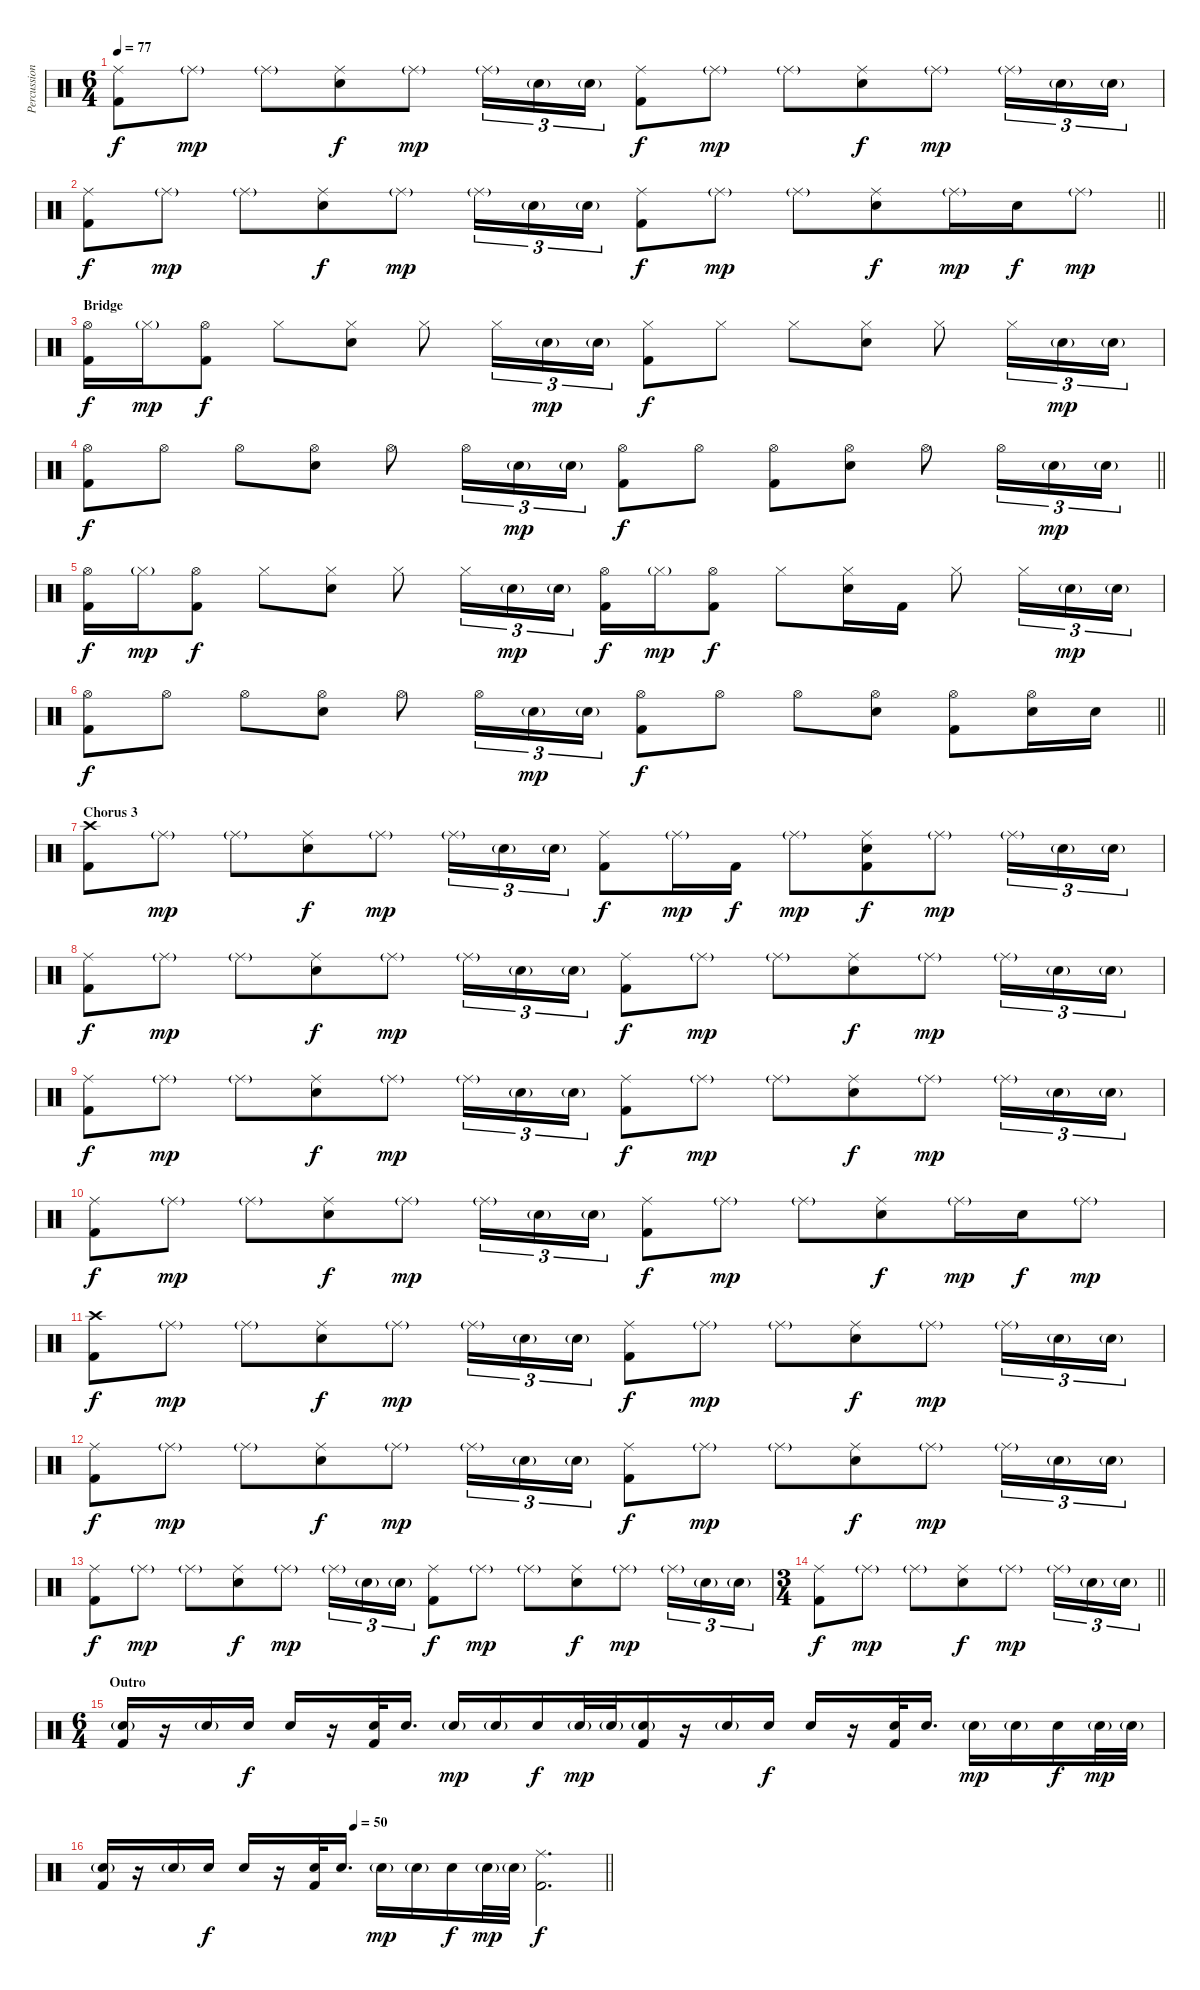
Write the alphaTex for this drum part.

\track ("Percussion" "Percussion") {instrument percussion}
\staff {score}
\articulation defaults
\ts (6 4)
\tempo 77
\clef neutral
\ks c
("Ride (middle)" "Kick (hit) 2").8{dy f beam merge} "Ride (middle)"{g}.8{dy mp} "Ride (middle)"{g}.8{beam merge} ("Ride (middle)" "Electric Snare (hit)").8{dy f beam merge} "Ride (middle)"{g}.8{dy mp} "Ride (middle)"{g}.16{tu (3 2)} "Electric Snare (hit)"{g}.16{tu (3 2)} "Electric Snare (hit)"{g}.16{tu (3 2)} ("Ride (middle)" "Kick (hit) 2").8{dy f beam merge} "Ride (middle)"{g}.8{dy mp} "Ride (middle)"{g}.8{beam merge} ("Ride (middle)" "Electric Snare (hit)").8{dy f beam merge} "Ride (middle)"{g}.8{dy mp} "Ride (middle)"{g}.16{tu (3 2)} "Electric Snare (hit)"{g}.16{tu (3 2)} "Electric Snare (hit)"{g}.16{tu (3 2)} |
\barLineRight lightlight
("Ride (middle)" "Kick (hit) 2").8{dy f beam merge} "Ride (middle)"{g}.8{dy mp} "Ride (middle)"{g}.8{beam merge} ("Ride (middle)" "Electric Snare (hit)").8{dy f beam merge} "Ride (middle)"{g}.8{dy mp} "Ride (middle)"{g}.16{tu (3 2)} "Electric Snare (hit)"{g}.16{tu (3 2)} "Electric Snare (hit)"{g}.16{tu (3 2)} ("Ride (middle)" "Kick (hit) 2").8{dy f beam merge} "Ride (middle)"{g}.8{dy mp} "Ride (middle)"{g}.8{beam merge} ("Ride (middle)" "Electric Snare (hit)").8{dy f beam merge} "Ride (middle)"{g}.16{dy mp beam merge} "Electric Snare (hit)".16{dy f} "Ride (middle)"{g}.8{dy mp} |
\section ("" "Bridge")
("Hi-Hat (open)" "Kick (hit) 2").16{dy f beam merge} "Hi-Hat (closed)"{g}.16{dy mp beam merge} ("Hi-Hat (open)" "Kick (hit) 2").8{dy f} "Hi-Hat (closed)".8 ("Hi-Hat (closed)" "Electric Snare (hit)").8 "Hi-Hat (closed)".8 "Hi-Hat (closed)".16{tu (3 2)} "Electric Snare (hit)"{g}.16{tu (3 2) dy mp} "Electric Snare (hit)"{g}.16{tu (3 2)} ("Hi-Hat (closed)" "Kick (hit) 2").8{dy f} "Hi-Hat (closed)".8 "Hi-Hat (closed)".8 ("Hi-Hat (closed)" "Electric Snare (hit)").8 "Hi-Hat (closed)".8 "Hi-Hat (closed)".16{tu (3 2)} "Electric Snare (hit)"{g}.16{tu (3 2) dy mp} "Electric Snare (hit)"{g}.16{tu (3 2)} |
\barLineRight lightlight
("Hi-Hat (open)" "Kick (hit) 2").8{dy f beam merge} "Hi-Hat (open)".8 "Hi-Hat (open)".8 ("Hi-Hat (open)" "Electric Snare (hit)").8 "Hi-Hat (open)".8 "Hi-Hat (open)".16{tu (3 2)} "Electric Snare (hit)"{g}.16{tu (3 2) dy mp} "Electric Snare (hit)"{g}.16{tu (3 2)} ("Hi-Hat (open)" "Kick (hit) 2").8{dy f} "Hi-Hat (open)".8 ("Hi-Hat (open)" "Kick (hit) 2").8 ("Hi-Hat (open)" "Electric Snare (hit)").8 "Hi-Hat (open)".8 "Hi-Hat (open)".16{tu (3 2)} "Electric Snare (hit)"{g}.16{tu (3 2) dy mp} "Electric Snare (hit)"{g}.16{tu (3 2)} |
("Hi-Hat (open)" "Kick (hit) 2").16{dy f beam merge} "Hi-Hat (closed)"{g}.16{dy mp beam merge} ("Hi-Hat (open)" "Kick (hit) 2").8{dy f} "Hi-Hat (closed)".8 ("Hi-Hat (closed)" "Electric Snare (hit)").8 "Hi-Hat (closed)".8 "Hi-Hat (closed)".16{tu (3 2)} "Electric Snare (hit)"{g}.16{tu (3 2) dy mp} "Electric Snare (hit)"{g}.16{tu (3 2)} ("Hi-Hat (open)" "Kick (hit) 2").16{dy f} "Hi-Hat (closed)"{g}.16{dy mp beam merge} ("Hi-Hat (open)" "Kick (hit) 2").8{dy f} "Hi-Hat (closed)".8 ("Hi-Hat (closed)" "Electric Snare (hit)").16{beam merge} "Kick (hit) 2".16 "Hi-Hat (closed)".8 "Hi-Hat (closed)".16{tu (3 2)} "Electric Snare (hit)"{g}.16{tu (3 2) dy mp} "Electric Snare (hit)"{g}.16{tu (3 2)} |
\barLineRight lightlight
("Hi-Hat (open)" "Kick (hit) 2").8{dy f beam merge} "Hi-Hat (open)".8 "Hi-Hat (open)".8 ("Hi-Hat (open)" "Electric Snare (hit)").8 "Hi-Hat (open)".8 "Hi-Hat (open)".16{tu (3 2)} "Electric Snare (hit)"{g}.16{tu (3 2) dy mp} "Electric Snare (hit)"{g}.16{tu (3 2)} ("Hi-Hat (open)" "Kick (hit) 2").8{dy f} "Hi-Hat (open)".8 "Hi-Hat (open)".8 ("Hi-Hat (open)" "Electric Snare (hit)").8 ("Hi-Hat (open)" "Kick (hit) 2").8 ("Hi-Hat (open)" "Electric Snare (hit)").16{beam merge} "Electric Snare (hit)".16 |
\section ("" "Chorus 3")
("Crash high (hit)" "Kick (hit) 2").8{beam merge} "Ride (middle)"{g}.8{dy mp} "Ride (middle)"{g}.8{beam merge} ("Ride (middle)" "Electric Snare (hit)").8{dy f beam merge} "Ride (middle)"{g}.8{dy mp} "Ride (middle)"{g}.16{tu (3 2)} "Electric Snare (hit)"{g}.16{tu (3 2)} "Electric Snare (hit)"{g}.16{tu (3 2)} ("Ride (middle)" "Kick (hit) 2").8{dy f beam merge} "Ride (middle)"{g}.16{dy mp beam merge} "Kick (hit) 2".16{dy f} "Ride (middle)"{g}.8{dy mp beam merge} ("Ride (middle)" "Electric Snare (hit)" "Kick (hit) 2").8{dy f beam merge} "Ride (middle)"{g}.8{dy mp} "Ride (middle)"{g}.16{tu (3 2)} "Electric Snare (hit)"{g}.16{tu (3 2)} "Electric Snare (hit)"{g}.16{tu (3 2)} |
("Ride (middle)" "Kick (hit) 2").8{dy f beam merge} "Ride (middle)"{g}.8{dy mp} "Ride (middle)"{g}.8{beam merge} ("Ride (middle)" "Electric Snare (hit)").8{dy f beam merge} "Ride (middle)"{g}.8{dy mp} "Ride (middle)"{g}.16{tu (3 2)} "Electric Snare (hit)"{g}.16{tu (3 2)} "Electric Snare (hit)"{g}.16{tu (3 2)} ("Ride (middle)" "Kick (hit) 2").8{dy f beam merge} "Ride (middle)"{g}.8{dy mp} "Ride (middle)"{g}.8{beam merge} ("Ride (middle)" "Electric Snare (hit)").8{dy f beam merge} "Ride (middle)"{g}.8{dy mp} "Ride (middle)"{g}.16{tu (3 2)} "Electric Snare (hit)"{g}.16{tu (3 2)} "Electric Snare (hit)"{g}.16{tu (3 2)} |
("Ride (middle)" "Kick (hit) 2").8{dy f beam merge} "Ride (middle)"{g}.8{dy mp} "Ride (middle)"{g}.8{beam merge} ("Ride (middle)" "Electric Snare (hit)").8{dy f beam merge} "Ride (middle)"{g}.8{dy mp} "Ride (middle)"{g}.16{tu (3 2)} "Electric Snare (hit)"{g}.16{tu (3 2)} "Electric Snare (hit)"{g}.16{tu (3 2)} ("Ride (middle)" "Kick (hit) 2").8{dy f beam merge} "Ride (middle)"{g}.8{dy mp} "Ride (middle)"{g}.8{beam merge} ("Ride (middle)" "Electric Snare (hit)").8{dy f beam merge} "Ride (middle)"{g}.8{dy mp} "Ride (middle)"{g}.16{tu (3 2)} "Electric Snare (hit)"{g}.16{tu (3 2)} "Electric Snare (hit)"{g}.16{tu (3 2)} |
("Ride (middle)" "Kick (hit) 2").8{dy f beam merge} "Ride (middle)"{g}.8{dy mp} "Ride (middle)"{g}.8{beam merge} ("Ride (middle)" "Electric Snare (hit)").8{dy f beam merge} "Ride (middle)"{g}.8{dy mp} "Ride (middle)"{g}.16{tu (3 2)} "Electric Snare (hit)"{g}.16{tu (3 2)} "Electric Snare (hit)"{g}.16{tu (3 2)} ("Ride (middle)" "Kick (hit) 2").8{dy f beam merge} "Ride (middle)"{g}.8{dy mp} "Ride (middle)"{g}.8{beam merge} ("Ride (middle)" "Electric Snare (hit)").8{dy f beam merge} "Ride (middle)"{g}.16{dy mp} "Electric Snare (hit)".16{dy f} "Ride (middle)"{g}.8{dy mp} |
("Crash high (hit)" "Kick (hit) 2").8{dy f beam merge} "Ride (middle)"{g}.8{dy mp} "Ride (middle)"{g}.8{beam merge} ("Ride (middle)" "Electric Snare (hit)").8{dy f beam merge} "Ride (middle)"{g}.8{dy mp} "Ride (middle)"{g}.16{tu (3 2)} "Electric Snare (hit)"{g}.16{tu (3 2)} "Electric Snare (hit)"{g}.16{tu (3 2)} ("Ride (middle)" "Kick (hit) 2").8{dy f beam merge} "Ride (middle)"{g}.8{dy mp} "Ride (middle)"{g}.8{beam merge} ("Ride (middle)" "Electric Snare (hit)").8{dy f beam merge} "Ride (middle)"{g}.8{dy mp} "Ride (middle)"{g}.16{tu (3 2)} "Electric Snare (hit)"{g}.16{tu (3 2)} "Electric Snare (hit)"{g}.16{tu (3 2)} |
("Ride (middle)" "Kick (hit) 2").8{dy f beam merge} "Ride (middle)"{g}.8{dy mp} "Ride (middle)"{g}.8{beam merge} ("Ride (middle)" "Electric Snare (hit)").8{dy f beam merge} "Ride (middle)"{g}.8{dy mp} "Ride (middle)"{g}.16{tu (3 2)} "Electric Snare (hit)"{g}.16{tu (3 2)} "Electric Snare (hit)"{g}.16{tu (3 2)} ("Ride (middle)" "Kick (hit) 2").8{dy f beam merge} "Ride (middle)"{g}.8{dy mp} "Ride (middle)"{g}.8{beam merge} ("Ride (middle)" "Electric Snare (hit)").8{dy f beam merge} "Ride (middle)"{g}.8{dy mp} "Ride (middle)"{g}.16{tu (3 2)} "Electric Snare (hit)"{g}.16{tu (3 2)} "Electric Snare (hit)"{g}.16{tu (3 2)} |
("Ride (middle)" "Kick (hit) 2").8{dy f beam merge} "Ride (middle)"{g}.8{dy mp} "Ride (middle)"{g}.8{beam merge} ("Ride (middle)" "Electric Snare (hit)").8{dy f beam merge} "Ride (middle)"{g}.8{dy mp} "Ride (middle)"{g}.16{tu (3 2)} "Electric Snare (hit)"{g}.16{tu (3 2)} "Electric Snare (hit)"{g}.16{tu (3 2)} ("Ride (middle)" "Kick (hit) 2").8{dy f beam merge} "Ride (middle)"{g}.8{dy mp} "Ride (middle)"{g}.8{beam merge} ("Ride (middle)" "Electric Snare (hit)").8{dy f beam merge} "Ride (middle)"{g}.8{dy mp} "Ride (middle)"{g}.16{tu (3 2)} "Electric Snare (hit)"{g}.16{tu (3 2)} "Electric Snare (hit)"{g}.16{tu (3 2)} |
\ts (3 4)
\barLineRight lightlight
("Ride (middle)" "Kick (hit) 2").8{dy f beam merge} "Ride (middle)"{g}.8{dy mp} "Ride (middle)"{g}.8{beam merge} ("Ride (middle)" "Electric Snare (hit)").8{dy f beam merge} "Ride (middle)"{g}.8{dy mp} "Ride (middle)"{g}.16{tu (3 2)} "Electric Snare (hit)"{g}.16{tu (3 2)} "Electric Snare (hit)"{g}.16{tu (3 2)} |
\ts (6 4)
\section ("" "Outro")
("Electric Snare (hit)"{g} "Kick (hit) 2").16{beam merge} r.16{beam merge} "Electric Snare (hit)"{g}.16 "Electric Snare (hit)".16{dy f} "Electric Snare (hit)".16 r.16 ("Electric Snare (hit)" "Kick (hit) 2").32 "Electric Snare (hit)".16{d} "Electric Snare (hit)"{g}.16{dy mp} "Electric Snare (hit)"{g}.16{beam merge} "Electric Snare (hit)".16{dy f} "Electric Snare (hit)"{g}.32{dy mp} "Electric Snare (hit)"{g}.32{beam merge} ("Electric Snare (hit)"{g} "Kick (hit) 2").16{beam merge} r.16{beam merge} "Electric Snare (hit)"{g}.16 "Electric Snare (hit)".16{dy f} "Electric Snare (hit)".16 r.16 ("Electric Snare (hit)" "Kick (hit) 2").32 "Electric Snare (hit)".16{d} "Electric Snare (hit)"{g}.16{dy mp} "Electric Snare (hit)"{g}.16{beam merge} "Electric Snare (hit)".16{dy f} "Electric Snare (hit)"{g}.32{dy mp} "Electric Snare (hit)"{g}.32 |
\tempo (50 0.5)
\barLineRight lightlight
("Electric Snare (hit)"{g} "Kick (hit) 2").16{beam merge} r.16{beam merge} "Electric Snare (hit)"{g}.16 "Electric Snare (hit)".16{dy f} "Electric Snare (hit)".16 r.16 ("Electric Snare (hit)" "Kick (hit) 2").32 "Electric Snare (hit)".16{d} "Electric Snare (hit)"{g}.16{dy mp} "Electric Snare (hit)"{g}.16{beam merge} "Electric Snare (hit)".16{dy f} "Electric Snare (hit)"{g}.32{dy mp} "Electric Snare (hit)"{g}.32{beam merge} ("Ride (middle)" "Kick (hit) 2").2{d dy f}
